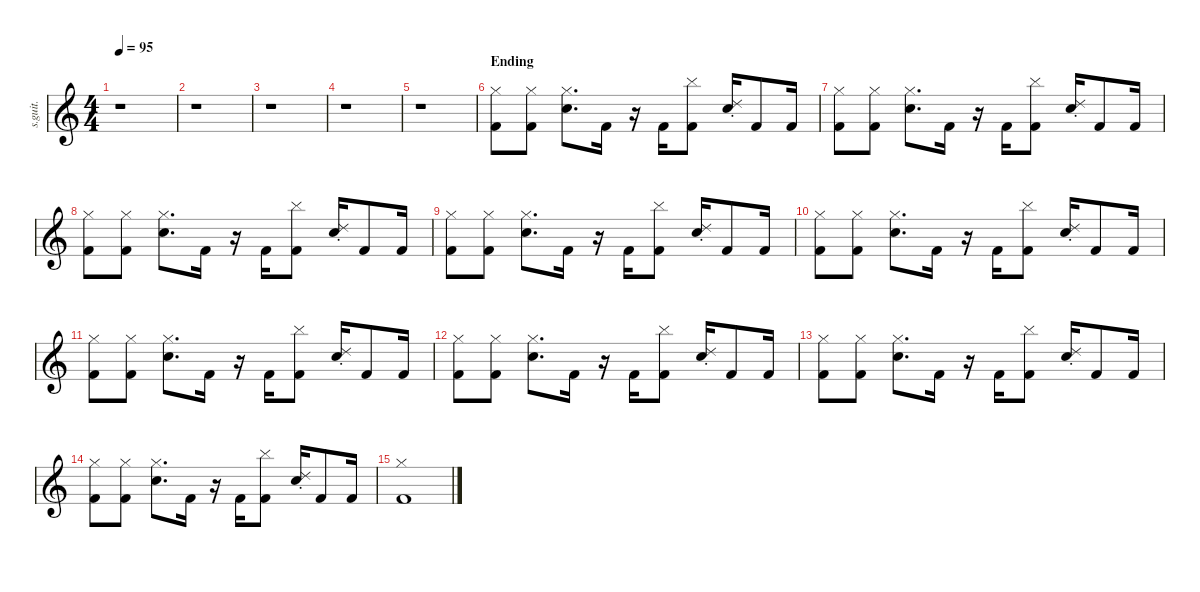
\defaultSystemsLayout 4
\hideDynamics
\bracketExtendMode nobrackets
\track ("(Electronic Beats)" "s.guit.") {instrument percussion}
\staff {score}
\articulation defaults
\ts (4 4)
\tempo 95
\clef g2
\ks c
r.1{dy mp} |
r.1 |
r.1 |
r.1 |
r.1 |
\section ("" "Ending")
("Hi-Hat (closed)" "Kick (hit) 2").8{lyrics (0 "") lyrics (1 "") lyrics (2 "") lyrics (3 "") lyrics (4 "")} ("Hi-Hat (closed)" "Kick (hit) 2").8{lyrics (0 "") lyrics (1 "") lyrics (2 "") lyrics (3 "") lyrics (4 "")} ("Hi-Hat (closed)" "Snare (hit) 2").8{d lyrics (0 "") lyrics (1 "") lyrics (2 "") lyrics (3 "") lyrics (4 "")} "Kick (hit) 2".16{lyrics (0 "") lyrics (1 "") lyrics (2 "") lyrics (3 "") lyrics (4 "")} r.16 "Kick (hit) 2".16{lyrics (0 "") lyrics (1 "") lyrics (2 "") lyrics (3 "") lyrics (4 "")} ("Cymbal (hit)" "Kick (hit) 2").8{lyrics (0 "") lyrics (1 "") lyrics (2 "") lyrics (3 "") lyrics (4 "")} ("Snare (hit) 2" "Ride (choke) 2").16{lyrics (0 "") lyrics (1 "") lyrics (2 "") lyrics (3 "") lyrics (4 "")} "Kick (hit) 2".8{lyrics (0 "") lyrics (1 "") lyrics (2 "") lyrics (3 "") lyrics (4 "")} "Kick (hit) 2".16{lyrics (0 "") lyrics (1 "") lyrics (2 "") lyrics (3 "") lyrics (4 "")} |
("Hi-Hat (closed)" "Kick (hit) 2").8{lyrics (0 "") lyrics (1 "") lyrics (2 "") lyrics (3 "") lyrics (4 "")} ("Hi-Hat (closed)" "Kick (hit) 2").8{lyrics (0 "") lyrics (1 "") lyrics (2 "") lyrics (3 "") lyrics (4 "")} ("Hi-Hat (closed)" "Snare (hit) 2").8{d lyrics (0 "") lyrics (1 "") lyrics (2 "") lyrics (3 "") lyrics (4 "")} "Kick (hit) 2".16{lyrics (0 "") lyrics (1 "") lyrics (2 "") lyrics (3 "") lyrics (4 "")} r.16 "Kick (hit) 2".16{lyrics (0 "") lyrics (1 "") lyrics (2 "") lyrics (3 "") lyrics (4 "")} ("Cymbal (hit)" "Kick (hit) 2").8{lyrics (0 "") lyrics (1 "") lyrics (2 "") lyrics (3 "") lyrics (4 "")} ("Snare (hit) 2" "Ride (choke) 2").16{lyrics (0 "") lyrics (1 "") lyrics (2 "") lyrics (3 "") lyrics (4 "")} "Kick (hit) 2".8{lyrics (0 "") lyrics (1 "") lyrics (2 "") lyrics (3 "") lyrics (4 "")} "Kick (hit) 2".16{lyrics (0 "") lyrics (1 "") lyrics (2 "") lyrics (3 "") lyrics (4 "")} |
("Hi-Hat (closed)" "Kick (hit) 2").8{lyrics (0 "") lyrics (1 "") lyrics (2 "") lyrics (3 "") lyrics (4 "")} ("Hi-Hat (closed)" "Kick (hit) 2").8{lyrics (0 "") lyrics (1 "") lyrics (2 "") lyrics (3 "") lyrics (4 "")} ("Hi-Hat (closed)" "Snare (hit) 2").8{d lyrics (0 "") lyrics (1 "") lyrics (2 "") lyrics (3 "") lyrics (4 "")} "Kick (hit) 2".16{lyrics (0 "") lyrics (1 "") lyrics (2 "") lyrics (3 "") lyrics (4 "")} r.16 "Kick (hit) 2".16{lyrics (0 "") lyrics (1 "") lyrics (2 "") lyrics (3 "") lyrics (4 "")} ("Cymbal (hit)" "Kick (hit) 2").8{lyrics (0 "") lyrics (1 "") lyrics (2 "") lyrics (3 "") lyrics (4 "")} ("Snare (hit) 2" "Ride (choke) 2").16{lyrics (0 "") lyrics (1 "") lyrics (2 "") lyrics (3 "") lyrics (4 "")} "Kick (hit) 2".8{lyrics (0 "") lyrics (1 "") lyrics (2 "") lyrics (3 "") lyrics (4 "")} "Kick (hit) 2".16{lyrics (0 "") lyrics (1 "") lyrics (2 "") lyrics (3 "") lyrics (4 "")} |
("Hi-Hat (closed)" "Kick (hit) 2").8{lyrics (0 "") lyrics (1 "") lyrics (2 "") lyrics (3 "") lyrics (4 "")} ("Hi-Hat (closed)" "Kick (hit) 2").8{lyrics (0 "") lyrics (1 "") lyrics (2 "") lyrics (3 "") lyrics (4 "")} ("Hi-Hat (closed)" "Snare (hit) 2").8{d lyrics (0 "") lyrics (1 "") lyrics (2 "") lyrics (3 "") lyrics (4 "")} "Kick (hit) 2".16{lyrics (0 "") lyrics (1 "") lyrics (2 "") lyrics (3 "") lyrics (4 "")} r.16 "Kick (hit) 2".16{lyrics (0 "") lyrics (1 "") lyrics (2 "") lyrics (3 "") lyrics (4 "")} ("Cymbal (hit)" "Kick (hit) 2").8{lyrics (0 "") lyrics (1 "") lyrics (2 "") lyrics (3 "") lyrics (4 "")} ("Snare (hit) 2" "Ride (choke) 2").16{lyrics (0 "") lyrics (1 "") lyrics (2 "") lyrics (3 "") lyrics (4 "")} "Kick (hit) 2".8{lyrics (0 "") lyrics (1 "") lyrics (2 "") lyrics (3 "") lyrics (4 "")} "Kick (hit) 2".16{lyrics (0 "") lyrics (1 "") lyrics (2 "") lyrics (3 "") lyrics (4 "")} |
("Hi-Hat (closed)" "Kick (hit) 2").8{lyrics (0 "") lyrics (1 "") lyrics (2 "") lyrics (3 "") lyrics (4 "") dy p} ("Hi-Hat (closed)" "Kick (hit) 2").8{lyrics (0 "") lyrics (1 "") lyrics (2 "") lyrics (3 "") lyrics (4 "")} ("Hi-Hat (closed)" "Snare (hit) 2").8{d lyrics (0 "") lyrics (1 "") lyrics (2 "") lyrics (3 "") lyrics (4 "")} "Kick (hit) 2".16{lyrics (0 "") lyrics (1 "") lyrics (2 "") lyrics (3 "") lyrics (4 "")} r.16 "Kick (hit) 2".16{lyrics (0 "") lyrics (1 "") lyrics (2 "") lyrics (3 "") lyrics (4 "")} ("Cymbal (hit)" "Kick (hit) 2").8{lyrics (0 "") lyrics (1 "") lyrics (2 "") lyrics (3 "") lyrics (4 "")} ("Snare (hit) 2" "Ride (choke) 2").16{lyrics (0 "") lyrics (1 "") lyrics (2 "") lyrics (3 "") lyrics (4 "")} "Kick (hit) 2".8{lyrics (0 "") lyrics (1 "") lyrics (2 "") lyrics (3 "") lyrics (4 "")} "Kick (hit) 2".16{lyrics (0 "") lyrics (1 "") lyrics (2 "") lyrics (3 "") lyrics (4 "")} |
("Hi-Hat (closed)" "Kick (hit) 2").8{lyrics (0 "") lyrics (1 "") lyrics (2 "") lyrics (3 "") lyrics (4 "") dy pp} ("Hi-Hat (closed)" "Kick (hit) 2").8{lyrics (0 "") lyrics (1 "") lyrics (2 "") lyrics (3 "") lyrics (4 "")} ("Hi-Hat (closed)" "Snare (hit) 2").8{d lyrics (0 "") lyrics (1 "") lyrics (2 "") lyrics (3 "") lyrics (4 "")} "Kick (hit) 2".16{lyrics (0 "") lyrics (1 "") lyrics (2 "") lyrics (3 "") lyrics (4 "")} r.16 "Kick (hit) 2".16{lyrics (0 "") lyrics (1 "") lyrics (2 "") lyrics (3 "") lyrics (4 "")} ("Cymbal (hit)" "Kick (hit) 2").8{lyrics (0 "") lyrics (1 "") lyrics (2 "") lyrics (3 "") lyrics (4 "")} ("Snare (hit) 2" "Ride (choke) 2").16{lyrics (0 "") lyrics (1 "") lyrics (2 "") lyrics (3 "") lyrics (4 "")} "Kick (hit) 2".8{lyrics (0 "") lyrics (1 "") lyrics (2 "") lyrics (3 "") lyrics (4 "")} "Kick (hit) 2".16{lyrics (0 "") lyrics (1 "") lyrics (2 "") lyrics (3 "") lyrics (4 "")} |
("Hi-Hat (closed)" "Kick (hit) 2").8{lyrics (0 "") lyrics (1 "") lyrics (2 "") lyrics (3 "") lyrics (4 "") dy ppp} ("Hi-Hat (closed)" "Kick (hit) 2").8{lyrics (0 "") lyrics (1 "") lyrics (2 "") lyrics (3 "") lyrics (4 "")} ("Hi-Hat (closed)" "Snare (hit) 2").8{d lyrics (0 "") lyrics (1 "") lyrics (2 "") lyrics (3 "") lyrics (4 "")} "Kick (hit) 2".16{lyrics (0 "") lyrics (1 "") lyrics (2 "") lyrics (3 "") lyrics (4 "")} r.16 "Kick (hit) 2".16{lyrics (0 "") lyrics (1 "") lyrics (2 "") lyrics (3 "") lyrics (4 "")} ("Cymbal (hit)" "Kick (hit) 2").8{lyrics (0 "") lyrics (1 "") lyrics (2 "") lyrics (3 "") lyrics (4 "")} ("Snare (hit) 2" "Ride (choke) 2").16{lyrics (0 "") lyrics (1 "") lyrics (2 "") lyrics (3 "") lyrics (4 "")} "Kick (hit) 2".8{lyrics (0 "") lyrics (1 "") lyrics (2 "") lyrics (3 "") lyrics (4 "")} "Kick (hit) 2".16{lyrics (0 "") lyrics (1 "") lyrics (2 "") lyrics (3 "") lyrics (4 "")} |
("Hi-Hat (closed)" "Kick (hit) 2").8{lyrics (0 "") lyrics (1 "") lyrics (2 "") lyrics (3 "") lyrics (4 "")} ("Hi-Hat (closed)" "Kick (hit) 2").8{lyrics (0 "") lyrics (1 "") lyrics (2 "") lyrics (3 "") lyrics (4 "")} ("Hi-Hat (closed)" "Snare (hit) 2").8{d lyrics (0 "") lyrics (1 "") lyrics (2 "") lyrics (3 "") lyrics (4 "")} "Kick (hit) 2".16{lyrics (0 "") lyrics (1 "") lyrics (2 "") lyrics (3 "") lyrics (4 "")} r.16 "Kick (hit) 2".16{lyrics (0 "") lyrics (1 "") lyrics (2 "") lyrics (3 "") lyrics (4 "")} ("Cymbal (hit)" "Kick (hit) 2").8{lyrics (0 "") lyrics (1 "") lyrics (2 "") lyrics (3 "") lyrics (4 "")} ("Snare (hit) 2" "Ride (choke) 2").16{lyrics (0 "") lyrics (1 "") lyrics (2 "") lyrics (3 "") lyrics (4 "")} "Kick (hit) 2".8{lyrics (0 "") lyrics (1 "") lyrics (2 "") lyrics (3 "") lyrics (4 "")} "Kick (hit) 2".16{lyrics (0 "") lyrics (1 "") lyrics (2 "") lyrics (3 "") lyrics (4 "")} |
("Hi-Hat (closed)" "Kick (hit) 2").8{lyrics (0 "") lyrics (1 "") lyrics (2 "") lyrics (3 "") lyrics (4 "")} ("Hi-Hat (closed)" "Kick (hit) 2").8{lyrics (0 "") lyrics (1 "") lyrics (2 "") lyrics (3 "") lyrics (4 "")} ("Hi-Hat (closed)" "Snare (hit) 2").8{d lyrics (0 "") lyrics (1 "") lyrics (2 "") lyrics (3 "") lyrics (4 "")} "Kick (hit) 2".16{lyrics (0 "") lyrics (1 "") lyrics (2 "") lyrics (3 "") lyrics (4 "")} r.16 "Kick (hit) 2".16{lyrics (0 "") lyrics (1 "") lyrics (2 "") lyrics (3 "") lyrics (4 "")} ("Cymbal (hit)" "Kick (hit) 2").8{lyrics (0 "") lyrics (1 "") lyrics (2 "") lyrics (3 "") lyrics (4 "")} ("Snare (hit) 2" "Ride (choke) 2").16{lyrics (0 "") lyrics (1 "") lyrics (2 "") lyrics (3 "") lyrics (4 "")} "Kick (hit) 2".8{lyrics (0 "") lyrics (1 "") lyrics (2 "") lyrics (3 "") lyrics (4 "")} "Kick (hit) 2".16{lyrics (0 "") lyrics (1 "") lyrics (2 "") lyrics (3 "") lyrics (4 "")} |
("Hi-Hat (closed)" "Kick (hit) 2").1{lyrics (0 "") lyrics (1 "") lyrics (2 "") lyrics (3 "") lyrics (4 "")}
